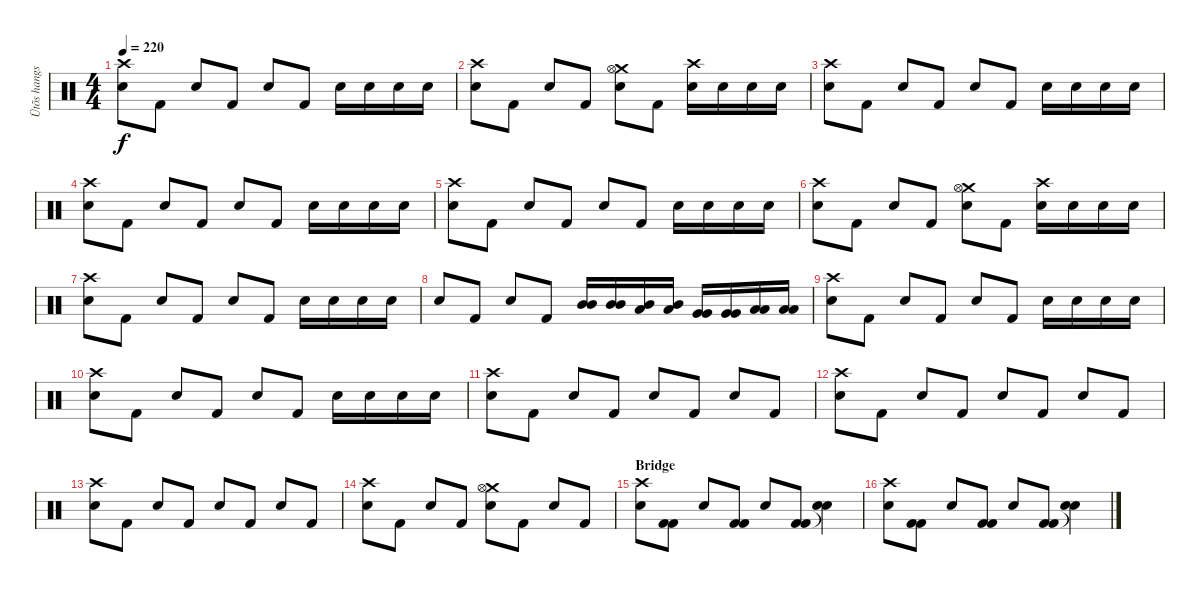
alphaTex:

\track ("Ütõs hangszer" "Ütõs hangs") {instrument percussion}
\staff {score}
\articulation defaults
\ts (4 4)
\tempo 220
\clef neutral
\ks c
("Snare (hit) 2" "Crash high (hit)").8{dy f} "Kick (hit) 2".8 "Snare (hit) 2".8 "Kick (hit) 2".8 "Snare (hit) 2".8 "Kick (hit) 2".8 "Snare (hit) 2".16 "Snare (hit) 2".16 "Snare (hit) 2".16 "Snare (hit) 2".16 |
("Snare (hit) 2" "Crash high (hit)").8 "Kick (hit) 2".8 "Snare (hit) 2".8 "Kick (hit) 2".8 ("Crash medium (hit)" "Snare (hit) 2" "Hi-Hat (open)").8 "Kick (hit) 2".8 ("Snare (hit) 2" "Crash high (hit)").16 "Snare (hit) 2".16 "Snare (hit) 2".16 "Snare (hit) 2".16 |
("Snare (hit) 2" "Crash high (hit)").8 "Kick (hit) 2".8 "Snare (hit) 2".8 "Kick (hit) 2".8 "Snare (hit) 2".8 "Kick (hit) 2".8 "Snare (hit) 2".16 "Snare (hit) 2".16 "Snare (hit) 2".16 "Snare (hit) 2".16 |
("Snare (hit) 2" "Crash high (hit)").8 "Kick (hit) 2".8 "Snare (hit) 2".8 "Kick (hit) 2".8 "Snare (hit) 2".8 "Kick (hit) 2".8 "Snare (hit) 2".16 "Snare (hit) 2".16 "Snare (hit) 2".16 "Snare (hit) 2".16 |
("Snare (hit) 2" "Crash high (hit)").8 "Kick (hit) 2".8 "Snare (hit) 2".8 "Kick (hit) 2".8 "Snare (hit) 2".8 "Kick (hit) 2".8 "Snare (hit) 2".16 "Snare (hit) 2".16 "Snare (hit) 2".16 "Snare (hit) 2".16 |
("Snare (hit) 2" "Crash high (hit)").8 "Kick (hit) 2".8 "Snare (hit) 2".8 "Kick (hit) 2".8 ("Crash medium (hit)" "Snare (hit) 2" "Hi-Hat (open)").8 "Kick (hit) 2".8 ("Snare (hit) 2" "Crash high (hit)").16 "Snare (hit) 2".16 "Snare (hit) 2".16 "Snare (hit) 2".16 |
("Snare (hit) 2" "Crash high (hit)").8 "Kick (hit) 2".8 "Snare (hit) 2".8 "Kick (hit) 2".8 "Snare (hit) 2".8 "Kick (hit) 2".8 "Snare (hit) 2".16 "Snare (hit) 2".16 "Snare (hit) 2".16 "Snare (hit) 2".16 |
"Snare (hit) 2".8 "Kick (hit) 2".8 "Snare (hit) 2".8 "Kick (hit) 2".8 ("Mid Tom (hit)" "Mid Tom (hit)").16 ("Mid Tom (hit)" "Mid Tom (hit)").16 ("Low Tom (hit)" "Mid Tom (hit)").16 ("Low Tom (hit)" "Mid Tom (hit)").16 ("Very Low Tom (hit)" "Very Low Tom (hit)").16 ("Very Low Tom (hit)" "Very Low Tom (hit)").16 ("Low Floor Tom (hit)" "Low Floor Tom (hit)").16 ("Low Floor Tom (hit)" "Low Floor Tom (hit)").16 |
("Snare (hit) 2" "Crash high (hit)").8 "Kick (hit) 2".8 "Snare (hit) 2".8 "Kick (hit) 2".8 "Snare (hit) 2".8 "Kick (hit) 2".8 "Snare (hit) 2".16 "Snare (hit) 2".16 "Snare (hit) 2".16 "Snare (hit) 2".16 |
("Snare (hit) 2" "Crash high (hit)").8 "Kick (hit) 2".8 "Snare (hit) 2".8 "Kick (hit) 2".8 "Snare (hit) 2".8 "Kick (hit) 2".8 "Snare (hit) 2".16 "Snare (hit) 2".16 "Snare (hit) 2".16 "Snare (hit) 2".16 |
("Snare (hit) 2" "Crash high (hit)").8 "Kick (hit) 2".8 "Snare (hit) 2".8 "Kick (hit) 2".8 "Snare (hit) 2".8 "Kick (hit) 2".8 "Snare (hit) 2".8 "Kick (hit) 2".8 |
("Snare (hit) 2" "Crash high (hit)").8 "Kick (hit) 2".8 "Snare (hit) 2".8 "Kick (hit) 2".8 "Snare (hit) 2".8 "Kick (hit) 2".8 "Snare (hit) 2".8 "Kick (hit) 2".8 |
("Snare (hit) 2" "Crash high (hit)").8 "Kick (hit) 2".8 "Snare (hit) 2".8 "Kick (hit) 2".8 "Snare (hit) 2".8 "Kick (hit) 2".8 "Snare (hit) 2".8 "Kick (hit) 2".8 |
("Snare (hit) 2" "Crash high (hit)").8 "Kick (hit) 2".8 "Snare (hit) 2".8 "Kick (hit) 2".8 ("Crash medium (hit)" "Snare (hit) 2" "Hi-Hat (open)").8 "Kick (hit) 2".8 "Snare (hit) 2".8 "Kick (hit) 2".8 |
\section ("" "Bridge")
("Snare (hit) 2" "Crash high (hit)").8 ("Kick (hit) 2" "Kick (hit) 2").8 "Snare (hit) 2".8 ("Kick (hit) 2" "Kick (hit) 2").8 "Snare (hit) 2".8 ("Kick (hit) 2" "Kick (hit) 2").8 ("Snare (hit) 2" "Snare (hit)"{t}).4 |
("Snare (hit) 2" "Crash high (hit)").8 ("Kick (hit) 2" "Kick (hit) 2").8 "Snare (hit) 2".8 ("Kick (hit) 2" "Kick (hit) 2").8 "Snare (hit) 2".8 ("Kick (hit) 2" "Kick (hit) 2").8 ("Snare (hit) 2" "Snare (hit)"{t}).4
